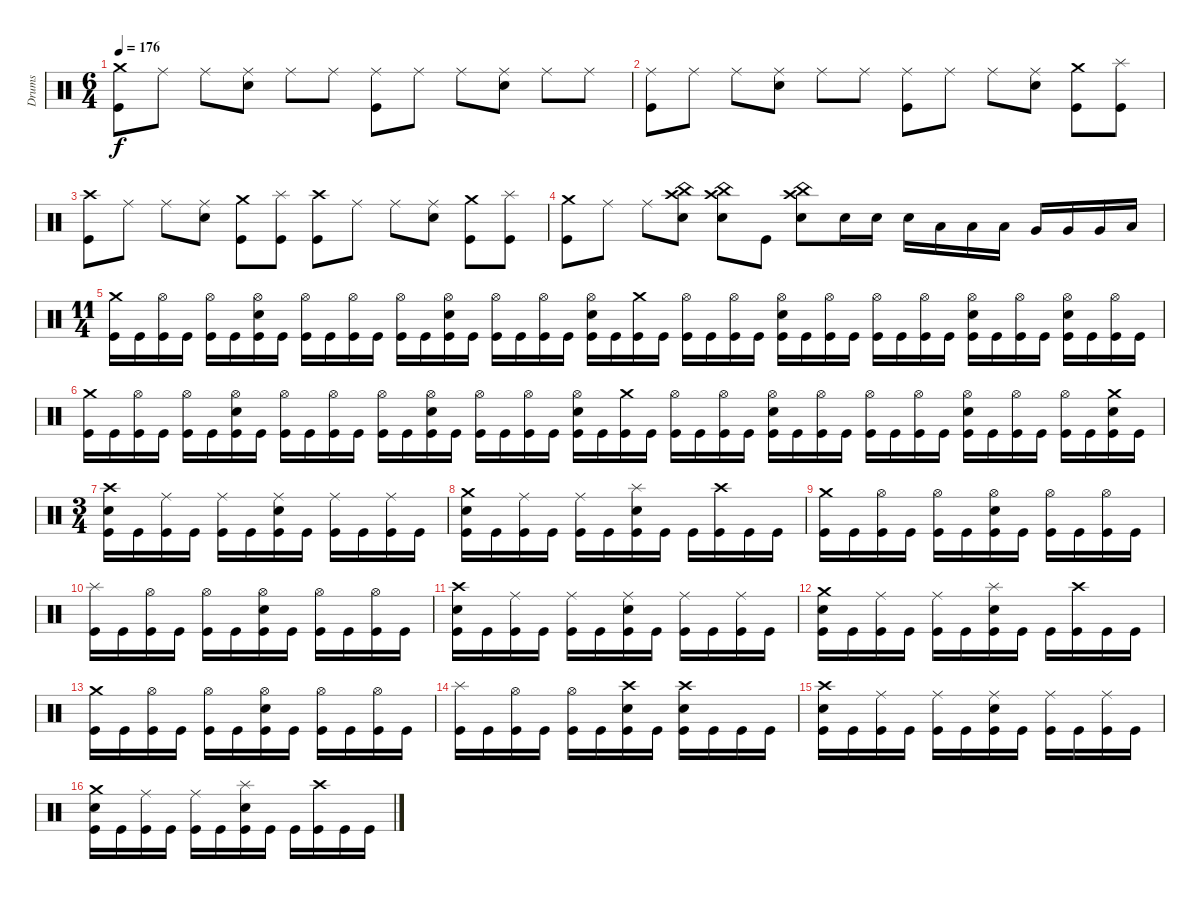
\track ("Drums" "Drums") {instrument percussion}
\staff {score}
\articulation defaults
\ts (6 4)
\tempo 176
\clef neutral
\ks c
("Crash medium (hit)" "Kick (hit)").8{dy f} "Ride (middle)".8 "Ride (middle)".8 ("Ride (middle)" "Electric Snare (hit)").8 "Ride (middle)".8 "Ride (middle)".8 ("Ride (middle)" "Kick (hit)").8 "Ride (middle)".8 "Ride (middle)".8 ("Ride (middle)" "Electric Snare (hit)").8 "Ride (middle)".8 "Ride (middle)".8 |
("Ride (middle)" "Kick (hit)").8 "Ride (middle)".8 "Ride (middle)".8 ("Ride (middle)" "Electric Snare (hit)").8 "Ride (middle)".8 "Ride (middle)".8 ("Ride (middle)" "Kick (hit)").8 "Ride (middle)".8 "Ride (middle)".8 ("Ride (middle)" "Electric Snare (hit)").8 ("Crash medium (hit)" "Kick (hit)").8 ("Splash (hit)" "Kick (hit)").8 |
("Crash high (hit)" "Kick (hit)").8 "Ride (middle)".8 "Ride (middle)".8 ("Ride (middle)" "Electric Snare (hit)").8 ("Crash medium (hit)" "Kick (hit)").8 ("Splash (hit)" "Kick (hit)").8 ("Crash high (hit)" "Kick (hit)").8 "Ride (middle)".8 "Ride (middle)".8 ("Ride (middle)" "Electric Snare (hit)").8 ("Crash medium (hit)" "Kick (hit)").8 ("Splash (hit)" "Kick (hit)").8 |
("Crash medium (hit)" "Kick (hit)").8 "Ride (middle)".8 "Ride (middle)".8 ("Crash high (hit)" "China (hit)" "Electric Snare (hit)").8 ("Crash high (hit)" "China (hit)" "Electric Snare (hit)").8 "Kick (hit)".8 ("Crash high (hit)" "China (hit)" "Electric Snare (hit)").8 "Electric Snare (hit)".16 "Electric Snare (hit)".16 "Electric Snare (hit)".16 "Low Tom (hit)".16 "Low Tom (hit)".16 "Low Tom (hit)".16 "Very Low Tom (hit)".16 "Very Low Tom (hit)".16 "Very Low Tom (hit)".16 "Low Floor Tom (hit)".16 |
\ts (11 4)
("Crash medium (hit)" "Kick (hit)").16 "Kick (hit)".16 ("Hi-Hat (open)" "Kick (hit)").16 "Kick (hit)".16 ("Hi-Hat (open)" "Kick (hit)").16 "Kick (hit)".16 ("Hi-Hat (open)" "Electric Snare (hit)" "Kick (hit)").16 "Kick (hit)".16 ("Hi-Hat (open)" "Kick (hit)").16 "Kick (hit)".16 ("Hi-Hat (open)" "Kick (hit)").16 "Kick (hit)".16 ("Hi-Hat (open)" "Kick (hit)").16 "Kick (hit)".16 ("Hi-Hat (open)" "Electric Snare (hit)" "Kick (hit)").16 "Kick (hit)".16 ("Hi-Hat (open)" "Kick (hit)").16 "Kick (hit)".16 ("Hi-Hat (open)" "Kick (hit)").16 "Kick (hit)".16 ("Hi-Hat (open)" "Electric Snare (hit)" "Kick (hit)").16 "Kick (hit)".16 ("Crash medium (hit)" "Kick (hit)").16 "Kick (hit)".16 ("Hi-Hat (open)" "Kick (hit)").16 "Kick (hit)".16 ("Hi-Hat (open)" "Kick (hit)").16 "Kick (hit)".16 ("Hi-Hat (open)" "Electric Snare (hit)" "Kick (hit)").16 "Kick (hit)".16 ("Hi-Hat (open)" "Kick (hit)").16 "Kick (hit)".16 ("Hi-Hat (open)" "Kick (hit)").16 "Kick (hit)".16 ("Hi-Hat (open)" "Kick (hit)").16 "Kick (hit)".16 ("Hi-Hat (open)" "Electric Snare (hit)" "Kick (hit)").16 "Kick (hit)".16 ("Hi-Hat (open)" "Kick (hit)").16 "Kick (hit)".16 ("Hi-Hat (open)" "Electric Snare (hit)" "Kick (hit)").16 "Kick (hit)".16 ("Hi-Hat (open)" "Kick (hit)").16 "Kick (hit)".16 |
("Crash medium (hit)" "Kick (hit)").16 "Kick (hit)".16 ("Hi-Hat (open)" "Kick (hit)").16 "Kick (hit)".16 ("Hi-Hat (open)" "Kick (hit)").16 "Kick (hit)".16 ("Hi-Hat (open)" "Electric Snare (hit)" "Kick (hit)").16 "Kick (hit)".16 ("Hi-Hat (open)" "Kick (hit)").16 "Kick (hit)".16 ("Hi-Hat (open)" "Kick (hit)").16 "Kick (hit)".16 ("Hi-Hat (open)" "Kick (hit)").16 "Kick (hit)".16 ("Hi-Hat (open)" "Electric Snare (hit)" "Kick (hit)").16 "Kick (hit)".16 ("Hi-Hat (open)" "Kick (hit)").16 "Kick (hit)".16 ("Hi-Hat (open)" "Kick (hit)").16 "Kick (hit)".16 ("Hi-Hat (open)" "Electric Snare (hit)" "Kick (hit)").16 "Kick (hit)".16 ("Crash medium (hit)" "Kick (hit)").16 "Kick (hit)".16 ("Hi-Hat (open)" "Kick (hit)").16 "Kick (hit)".16 ("Hi-Hat (open)" "Kick (hit)").16 "Kick (hit)".16 ("Hi-Hat (open)" "Electric Snare (hit)" "Kick (hit)").16 "Kick (hit)".16 ("Hi-Hat (open)" "Kick (hit)").16 "Kick (hit)".16 ("Hi-Hat (open)" "Kick (hit)").16 "Kick (hit)".16 ("Hi-Hat (open)" "Kick (hit)").16 "Kick (hit)".16 ("Hi-Hat (open)" "Electric Snare (hit)" "Kick (hit)").16 "Kick (hit)".16 ("Hi-Hat (open)" "Kick (hit)").16 "Kick (hit)".16 ("Hi-Hat (open)" "Kick (hit)").16 "Kick (hit)".16 ("Crash medium (hit)" "Electric Snare (hit)" "Kick (hit)").16 "Kick (hit)".16 |
\ts (3 4)
("Crash high (hit)" "Electric Snare (hit)" "Kick (hit)").16 "Kick (hit)".16 ("Ride (middle)" "Kick (hit)").16 "Kick (hit)".16 ("Ride (middle)" "Kick (hit)").16 "Kick (hit)".16 ("Ride (middle)" "Electric Snare (hit)" "Kick (hit)").16 "Kick (hit)".16 ("Ride (middle)" "Kick (hit)").16 "Kick (hit)".16 ("Ride (middle)" "Kick (hit)").16 "Kick (hit)".16 |
("Crash medium (hit)" "Electric Snare (hit)" "Kick (hit)").16 "Kick (hit)".16 ("Ride (middle)" "Kick (hit)").16 "Kick (hit)".16 ("Ride (middle)" "Kick (hit)").16 "Kick (hit)".16 ("Splash (hit)" "Electric Snare (hit)" "Kick (hit)").16 "Kick (hit)".16 "Kick (hit)".16 ("Crash high (hit)" "Kick (hit)").16 "Kick (hit)".16 "Kick (hit)".16 |
("Crash medium (hit)" "Kick (hit)").16 "Kick (hit)".16 ("Hi-Hat (open)" "Kick (hit)").16 "Kick (hit)".16 ("Hi-Hat (open)" "Kick (hit)").16 "Kick (hit)".16 ("Hi-Hat (open)" "Electric Snare (hit)" "Kick (hit)").16 "Kick (hit)".16 ("Hi-Hat (open)" "Kick (hit)").16 "Kick (hit)".16 ("Hi-Hat (open)" "Kick (hit)").16 "Kick (hit)".16 |
("Splash (hit)" "Kick (hit)").16 "Kick (hit)".16 ("Hi-Hat (open)" "Kick (hit)").16 "Kick (hit)".16 ("Hi-Hat (open)" "Kick (hit)").16 "Kick (hit)".16 ("Hi-Hat (open)" "Electric Snare (hit)" "Kick (hit)").16 "Kick (hit)".16 ("Hi-Hat (open)" "Kick (hit)").16 "Kick (hit)".16 ("Hi-Hat (open)" "Kick (hit)").16 "Kick (hit)".16 |
("Crash high (hit)" "Electric Snare (hit)" "Kick (hit)").16 "Kick (hit)".16 ("Ride (middle)" "Kick (hit)").16 "Kick (hit)".16 ("Ride (middle)" "Kick (hit)").16 "Kick (hit)".16 ("Ride (middle)" "Electric Snare (hit)" "Kick (hit)").16 "Kick (hit)".16 ("Ride (middle)" "Kick (hit)").16 "Kick (hit)".16 ("Ride (middle)" "Kick (hit)").16 "Kick (hit)".16 |
("Crash medium (hit)" "Electric Snare (hit)" "Kick (hit)").16 "Kick (hit)".16 ("Ride (middle)" "Kick (hit)").16 "Kick (hit)".16 ("Ride (middle)" "Kick (hit)").16 "Kick (hit)".16 ("Splash (hit)" "Electric Snare (hit)" "Kick (hit)").16 "Kick (hit)".16 "Kick (hit)".16 ("Crash high (hit)" "Kick (hit)").16 "Kick (hit)".16 "Kick (hit)".16 |
("Crash medium (hit)" "Kick (hit)").16 "Kick (hit)".16 ("Hi-Hat (open)" "Kick (hit)").16 "Kick (hit)".16 ("Hi-Hat (open)" "Kick (hit)").16 "Kick (hit)".16 ("Hi-Hat (open)" "Electric Snare (hit)" "Kick (hit)").16 "Kick (hit)".16 ("Hi-Hat (open)" "Kick (hit)").16 "Kick (hit)".16 ("Hi-Hat (open)" "Kick (hit)").16 "Kick (hit)".16 |
("Splash (hit)" "Kick (hit)").16 "Kick (hit)".16 ("Hi-Hat (open)" "Kick (hit)").16 "Kick (hit)".16 ("Hi-Hat (open)" "Kick (hit)").16 "Kick (hit)".16 ("Crash high (hit)" "Electric Snare (hit)" "Kick (hit)").16 "Kick (hit)".16 ("Crash high (hit)" "Electric Snare (hit)" "Kick (hit)").16 "Kick (hit)".16 "Kick (hit)".16 "Kick (hit)".16 |
("Crash high (hit)" "Electric Snare (hit)" "Kick (hit)").16 "Kick (hit)".16 ("Ride (middle)" "Kick (hit)").16 "Kick (hit)".16 ("Ride (middle)" "Kick (hit)").16 "Kick (hit)".16 ("Ride (middle)" "Electric Snare (hit)" "Kick (hit)").16 "Kick (hit)".16 ("Ride (middle)" "Kick (hit)").16 "Kick (hit)".16 ("Ride (middle)" "Kick (hit)").16 "Kick (hit)".16 |
("Crash medium (hit)" "Electric Snare (hit)" "Kick (hit)").16 "Kick (hit)".16 ("Ride (middle)" "Kick (hit)").16 "Kick (hit)".16 ("Ride (middle)" "Kick (hit)").16 "Kick (hit)".16 ("Splash (hit)" "Electric Snare (hit)" "Kick (hit)").16 "Kick (hit)".16 "Kick (hit)".16 ("Crash high (hit)" "Kick (hit)").16 "Kick (hit)".16 "Kick (hit)".16
